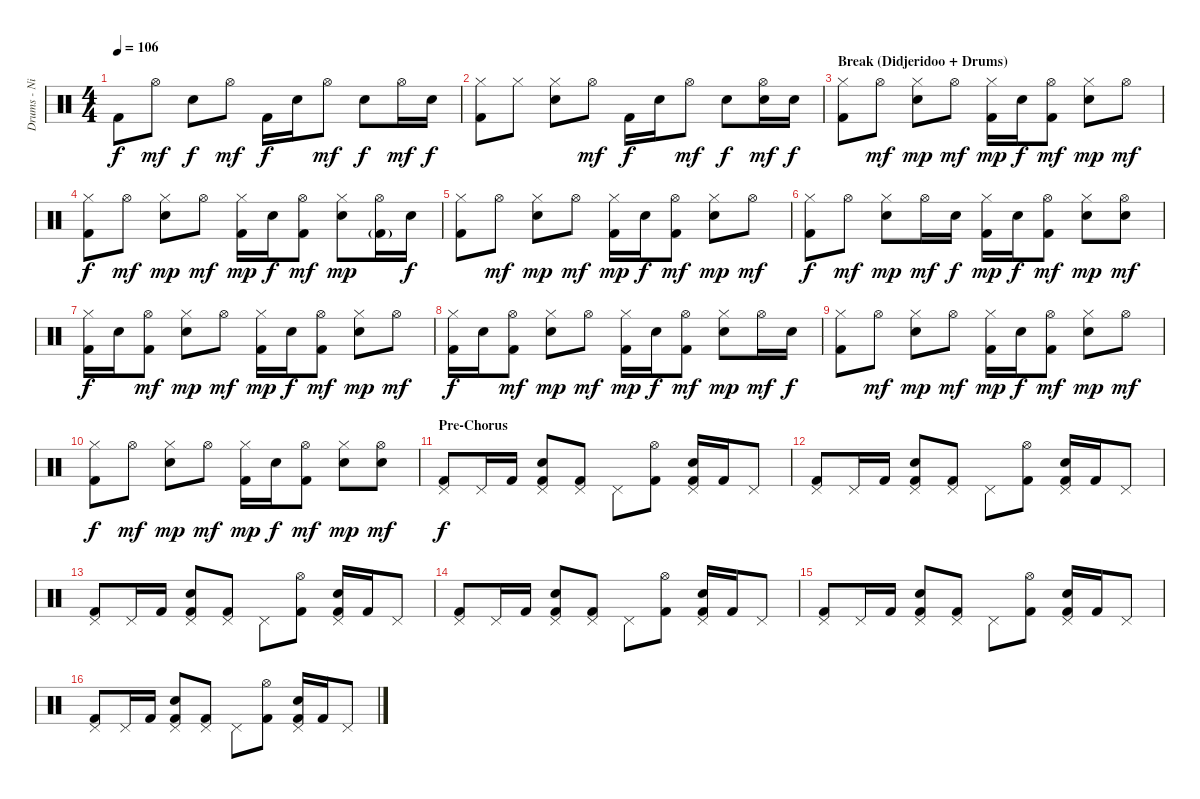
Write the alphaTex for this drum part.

\track ("Drums - Nick Van Gelder" "Drums - Ni") {instrument percussion}
\staff {score}
\articulation defaults
\ts (4 4)
\tempo 106
\clef neutral
\ks c "Kick (hit) 2".8{dy f} "Hi-Hat (open)".8{dy mf} "Electric Snare (hit)".8{dy f} "Hi-Hat (open)".8{dy mf} "Kick (hit) 2".16{dy f} "Electric Snare (hit)".16 "Hi-Hat (open)".8{dy mf} "Electric Snare (hit)".8{dy f} "Hi-Hat (open)".16{dy mf} "Electric Snare (hit)".16{dy f}
|
("Hi-Hat (closed)" "Kick (hit) 2").8 "Hi-Hat (closed)".8 ("Hi-Hat (closed)" "Electric Snare (hit)").8 "Hi-Hat (open)".8{dy mf} "Kick (hit) 2".16{dy f} "Electric Snare (hit)".16 "Hi-Hat (open)".8{dy mf} "Electric Snare (hit)".8{dy f} ("Hi-Hat (open)" "Electric Snare (hit)").16{dy mf} "Electric Snare (hit)".16{dy f} |
\section ("" "Break (Didjeridoo + Drums)")
("Hi-Hat (closed)" "Kick (hit) 2").8 "Hi-Hat (open)".8{dy mf} ("Hi-Hat (closed)" "Electric Snare (hit)").8{dy mp} "Hi-Hat (open)".8{dy mf} ("Hi-Hat (closed)" "Kick (hit) 2").16{dy mp} "Electric Snare (hit)".16{dy f} ("Hi-Hat (open)" "Kick (hit) 2").8{dy mf} ("Hi-Hat (closed)" "Electric Snare (hit)").8{dy mp} "Hi-Hat (open)".8{dy mf} |
("Hi-Hat (closed)" "Kick (hit) 2").8{dy f} "Hi-Hat (open)".8{dy mf} ("Hi-Hat (closed)" "Electric Snare (hit)").8{dy mp} "Hi-Hat (open)".8{dy mf} ("Hi-Hat (closed)" "Kick (hit) 2").16{dy mp} "Electric Snare (hit)".16{dy f} ("Hi-Hat (open)" "Kick (hit) 2").8{dy mf} ("Hi-Hat (closed)" "Electric Snare (hit)").8{dy mp} ("Hi-Hat (open)" "Kick (hit) 2"{g}).16 "Electric Snare (hit)".16{dy f} |
("Hi-Hat (closed)" "Kick (hit) 2").8 "Hi-Hat (open)".8{dy mf} ("Hi-Hat (closed)" "Electric Snare (hit)").8{dy mp} "Hi-Hat (open)".8{dy mf} ("Hi-Hat (closed)" "Kick (hit) 2").16{dy mp} "Electric Snare (hit)".16{dy f} ("Hi-Hat (open)" "Kick (hit) 2").8{dy mf} ("Hi-Hat (closed)" "Electric Snare (hit)").8{dy mp} "Hi-Hat (open)".8{dy mf} |
("Hi-Hat (closed)" "Kick (hit) 2").8{dy f} "Hi-Hat (open)".8{dy mf} ("Hi-Hat (closed)" "Electric Snare (hit)").8{dy mp} "Hi-Hat (open)".16{dy mf} "Electric Snare (hit)".16{dy f} ("Hi-Hat (closed)" "Kick (hit) 2").16{dy mp} "Electric Snare (hit)".16{dy f} ("Hi-Hat (open)" "Kick (hit) 2").8{dy mf} ("Hi-Hat (closed)" "Electric Snare (hit)").8{dy mp} ("Hi-Hat (open)" "Electric Snare (hit)").8{dy mf} |
("Hi-Hat (closed)" "Kick (hit) 2").16{dy f} "Electric Snare (hit)".16 ("Hi-Hat (open)" "Kick (hit) 2").8{dy mf} ("Hi-Hat (closed)" "Electric Snare (hit)").8{dy mp} "Hi-Hat (open)".8{dy mf} ("Hi-Hat (closed)" "Kick (hit) 2").16{dy mp} "Electric Snare (hit)".16{dy f} ("Hi-Hat (open)" "Kick (hit) 2").8{dy mf} ("Hi-Hat (closed)" "Electric Snare (hit)").8{dy mp} "Hi-Hat (open)".8{dy mf} |
("Hi-Hat (closed)" "Kick (hit) 2").16{dy f} "Electric Snare (hit)".16 ("Hi-Hat (open)" "Kick (hit) 2").8{dy mf} ("Hi-Hat (closed)" "Electric Snare (hit)").8{dy mp} "Hi-Hat (open)".8{dy mf} ("Hi-Hat (closed)" "Kick (hit) 2").16{dy mp} "Electric Snare (hit)".16{dy f} ("Hi-Hat (open)" "Kick (hit) 2").8{dy mf} ("Hi-Hat (closed)" "Electric Snare (hit)").8{dy mp} "Hi-Hat (open)".16{dy mf} "Electric Snare (hit)".16{dy f} |
("Hi-Hat (closed)" "Kick (hit) 2").8 "Hi-Hat (open)".8{dy mf} ("Hi-Hat (closed)" "Electric Snare (hit)").8{dy mp} "Hi-Hat (open)".8{dy mf} ("Hi-Hat (closed)" "Kick (hit) 2").16{dy mp} "Electric Snare (hit)".16{dy f} ("Hi-Hat (open)" "Kick (hit) 2").8{dy mf} ("Hi-Hat (closed)" "Electric Snare (hit)").8{dy mp} "Hi-Hat (open)".8{dy mf} |
("Hi-Hat (closed)" "Kick (hit) 2").8{dy f} "Hi-Hat (open)".8{dy mf} ("Hi-Hat (closed)" "Electric Snare (hit)").8{dy mp} "Hi-Hat (open)".8{dy mf} ("Hi-Hat (closed)" "Kick (hit) 2").16{dy mp} "Electric Snare (hit)".16{dy f} ("Hi-Hat (open)" "Kick (hit) 2").8{dy mf} ("Hi-Hat (closed)" "Electric Snare (hit)").8{dy mp} ("Hi-Hat (open)" "Electric Snare (hit)").8{dy mf} |
\section ("" "Pre-Chorus")
("Pedal Hi-Hat (hit)" "Kick (hit) 2").8{dy f} "Pedal Hi-Hat (hit)".16 "Kick (hit) 2".16 ("Pedal Hi-Hat (hit)" "Electric Snare (hit)" "Kick (hit) 2").8 ("Pedal Hi-Hat (hit)" "Kick (hit) 2").8 "Pedal Hi-Hat (hit)".8 ("Hi-Hat (open)" "Kick (hit) 2").8 ("Pedal Hi-Hat (hit)" "Electric Snare (hit)" "Kick (hit) 2").16 "Kick (hit) 2".16 "Pedal Hi-Hat (hit)".8 |
("Pedal Hi-Hat (hit)" "Kick (hit) 2").8 "Pedal Hi-Hat (hit)".16 "Kick (hit) 2".16 ("Pedal Hi-Hat (hit)" "Electric Snare (hit)" "Kick (hit) 2").8 ("Pedal Hi-Hat (hit)" "Kick (hit) 2").8 "Pedal Hi-Hat (hit)".8 ("Hi-Hat (open)" "Kick (hit) 2").8 ("Pedal Hi-Hat (hit)" "Electric Snare (hit)" "Kick (hit) 2").16 "Kick (hit) 2".16 "Pedal Hi-Hat (hit)".8 |
("Pedal Hi-Hat (hit)" "Kick (hit) 2").8 "Pedal Hi-Hat (hit)".16 "Kick (hit) 2".16 ("Pedal Hi-Hat (hit)" "Electric Snare (hit)" "Kick (hit) 2").8 ("Pedal Hi-Hat (hit)" "Kick (hit) 2").8 "Pedal Hi-Hat (hit)".8 ("Hi-Hat (open)" "Kick (hit) 2").8 ("Pedal Hi-Hat (hit)" "Electric Snare (hit)" "Kick (hit) 2").16 "Kick (hit) 2".16 "Pedal Hi-Hat (hit)".8 |
("Pedal Hi-Hat (hit)" "Kick (hit) 2").8 "Pedal Hi-Hat (hit)".16 "Kick (hit) 2".16 ("Pedal Hi-Hat (hit)" "Electric Snare (hit)" "Kick (hit) 2").8 ("Pedal Hi-Hat (hit)" "Kick (hit) 2").8 "Pedal Hi-Hat (hit)".8 ("Hi-Hat (open)" "Kick (hit) 2").8 ("Pedal Hi-Hat (hit)" "Electric Snare (hit)" "Kick (hit) 2").16 "Kick (hit) 2".16 "Pedal Hi-Hat (hit)".8 |
("Pedal Hi-Hat (hit)" "Kick (hit) 2").8 "Pedal Hi-Hat (hit)".16 "Kick (hit) 2".16 ("Pedal Hi-Hat (hit)" "Electric Snare (hit)" "Kick (hit) 2").8 ("Pedal Hi-Hat (hit)" "Kick (hit) 2").8 "Pedal Hi-Hat (hit)".8 ("Hi-Hat (open)" "Kick (hit) 2").8 ("Pedal Hi-Hat (hit)" "Electric Snare (hit)" "Kick (hit) 2").16 "Kick (hit) 2".16 "Pedal Hi-Hat (hit)".8 |
("Pedal Hi-Hat (hit)" "Kick (hit) 2").8 "Pedal Hi-Hat (hit)".16 "Kick (hit) 2".16 ("Pedal Hi-Hat (hit)" "Electric Snare (hit)" "Kick (hit) 2").8 ("Pedal Hi-Hat (hit)" "Kick (hit) 2").8 "Pedal Hi-Hat (hit)".8 ("Hi-Hat (open)" "Kick (hit) 2").8 ("Pedal Hi-Hat (hit)" "Electric Snare (hit)" "Kick (hit) 2").16 "Kick (hit) 2".16 "Pedal Hi-Hat (hit)".8
